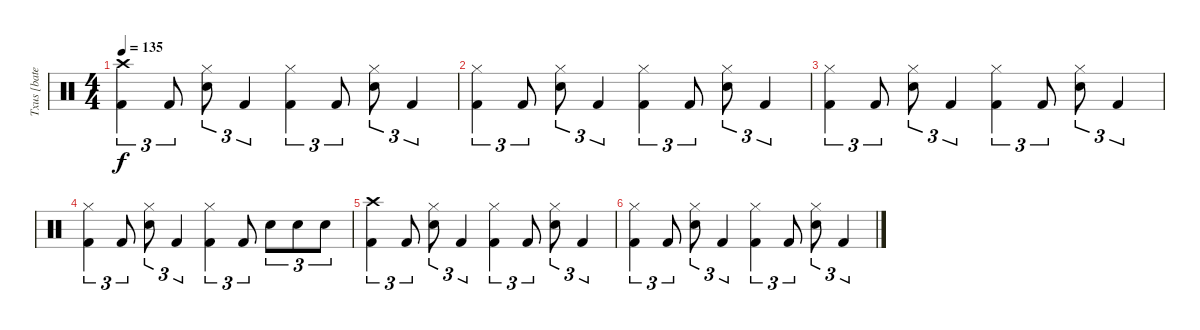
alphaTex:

\track ("Txus [bateria]" "Txus [bate") {instrument percussion}
\staff {score}
\articulation defaults
\ts (4 4)
\tempo 135
\clef neutral
\ks c
("Crash high (hit)" "Kick (hit) 2").4{tu (3 2) dy f volume 6} "Kick (hit) 2".8{tu (3 2)} ("Hi-Hat (closed)" "Snare (hit) 2").8{tu (3 2)} "Kick (hit) 2".4{tu (3 2)} ("Hi-Hat (closed)" "Kick (hit) 2").4{tu (3 2)} "Kick (hit) 2".8{tu (3 2)} ("Hi-Hat (closed)" "Snare (hit) 2").8{tu (3 2)} "Kick (hit) 2".4{tu (3 2)} |
("Hi-Hat (closed)" "Kick (hit) 2").4{tu (3 2)} "Kick (hit) 2".8{tu (3 2)} ("Hi-Hat (closed)" "Snare (hit) 2").8{tu (3 2)} "Kick (hit) 2".4{tu (3 2)} ("Hi-Hat (closed)" "Kick (hit) 2").4{tu (3 2)} "Kick (hit) 2".8{tu (3 2)} ("Hi-Hat (closed)" "Snare (hit) 2").8{tu (3 2)} "Kick (hit) 2".4{tu (3 2)} |
("Hi-Hat (closed)" "Kick (hit) 2").4{tu (3 2) volume 0} "Kick (hit) 2".8{tu (3 2)} ("Hi-Hat (closed)" "Snare (hit) 2").8{tu (3 2)} "Kick (hit) 2".4{tu (3 2)} ("Hi-Hat (closed)" "Kick (hit) 2").4{tu (3 2)} "Kick (hit) 2".8{tu (3 2)} ("Hi-Hat (closed)" "Snare (hit) 2").8{tu (3 2)} "Kick (hit) 2".4{tu (3 2)} |
("Hi-Hat (closed)" "Kick (hit) 2").4{tu (3 2)} "Kick (hit) 2".8{tu (3 2)} ("Hi-Hat (closed)" "Snare (hit) 2").8{tu (3 2)} "Kick (hit) 2".4{tu (3 2)} ("Hi-Hat (closed)" "Kick (hit) 2").4{tu (3 2)} "Kick (hit) 2".8{tu (3 2)} "Snare (hit) 2".8{tu (3 2)} "Snare (hit) 2".8{tu (3 2)} "Snare (hit) 2".8{tu (3 2)} |
("Crash high (hit)" "Kick (hit) 2").4{tu (3 2)} "Kick (hit) 2".8{tu (3 2)} ("Hi-Hat (closed)" "Snare (hit) 2").8{tu (3 2)} "Kick (hit) 2".4{tu (3 2)} ("Hi-Hat (closed)" "Kick (hit) 2").4{tu (3 2)} "Kick (hit) 2".8{tu (3 2)} ("Hi-Hat (closed)" "Snare (hit) 2").8{tu (3 2)} "Kick (hit) 2".4{tu (3 2)} |
("Hi-Hat (closed)" "Kick (hit) 2").4{tu (3 2)} "Kick (hit) 2".8{tu (3 2)} ("Hi-Hat (closed)" "Snare (hit) 2").8{tu (3 2)} "Kick (hit) 2".4{tu (3 2)} ("Hi-Hat (closed)" "Kick (hit) 2").4{tu (3 2)} "Kick (hit) 2".8{tu (3 2)} ("Hi-Hat (closed)" "Snare (hit) 2").8{tu (3 2)} "Kick (hit) 2".4{tu (3 2)}
